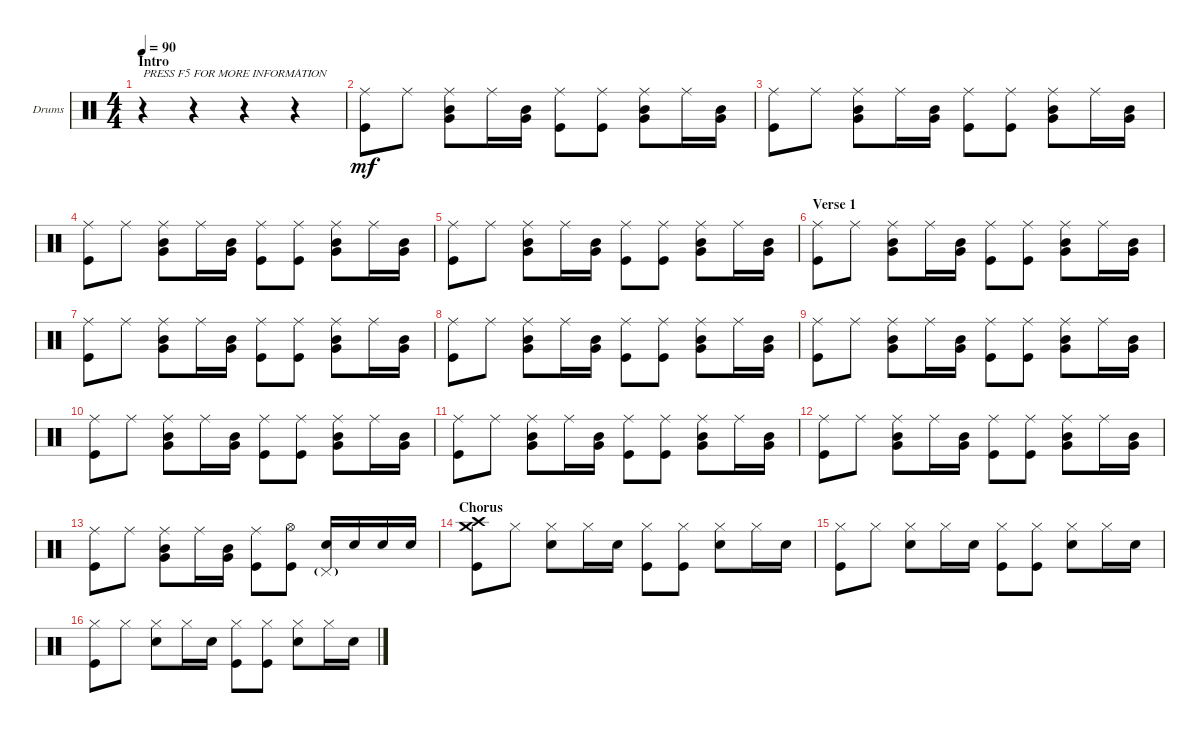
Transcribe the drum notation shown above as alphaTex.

\defaultSystemsLayout 4
\bracketExtendMode groupsimilarinstruments
\firstSystemTrackNameOrientation horizontal
\otherSystemsTrackNameOrientation horizontal
\track ("Drums" "Drums") {instrument percussion}
\staff {score}
\articulation defaults
\ts (4 4)
\section ("" "Intro")
\tempo 90
\clef neutral
\ks c
r.4{txt "PRESS F5 FOR MORE INFORMATION" dy mf} r.4 r.4 r.4 |
("Ride (middle)" "Kick (hit)").8 "Ride (middle)".8 ("Ride (middle)" "Very Low Tom (hit)" "Mid Tom (hit)").8 "Ride (middle)".16 ("Very Low Tom (hit)" "Mid Tom (hit)").16 ("Ride (middle)" "Kick (hit)").8 ("Ride (middle)" "Kick (hit)").8 ("Ride (middle)" "Very Low Tom (hit)" "Mid Tom (hit)").8 "Ride (middle)".16 ("Very Low Tom (hit)" "Mid Tom (hit)").16 |
("Ride (middle)" "Kick (hit)").8 "Ride (middle)".8 ("Ride (middle)" "Very Low Tom (hit)" "Mid Tom (hit)").8 "Ride (middle)".16 ("Very Low Tom (hit)" "Mid Tom (hit)").16 ("Ride (middle)" "Kick (hit)").8 ("Ride (middle)" "Kick (hit)").8 ("Ride (middle)" "Very Low Tom (hit)" "Mid Tom (hit)").8 "Ride (middle)".16 ("Very Low Tom (hit)" "Mid Tom (hit)").16 |
("Ride (middle)" "Kick (hit)").8 "Ride (middle)".8 ("Ride (middle)" "Very Low Tom (hit)" "Mid Tom (hit)").8 "Ride (middle)".16 ("Very Low Tom (hit)" "Mid Tom (hit)").16 ("Ride (middle)" "Kick (hit)").8 ("Ride (middle)" "Kick (hit)").8 ("Ride (middle)" "Very Low Tom (hit)" "Mid Tom (hit)").8 "Ride (middle)".16 ("Very Low Tom (hit)" "Mid Tom (hit)").16 |
("Ride (middle)" "Kick (hit)").8 "Ride (middle)".8 ("Ride (middle)" "Very Low Tom (hit)" "Mid Tom (hit)").8 "Ride (middle)".16 ("Very Low Tom (hit)" "Mid Tom (hit)").16 ("Ride (middle)" "Kick (hit)").8 ("Ride (middle)" "Kick (hit)").8 ("Ride (middle)" "Very Low Tom (hit)" "Mid Tom (hit)").8 "Ride (middle)".16 ("Very Low Tom (hit)" "Mid Tom (hit)").16 |
\section ("" "Verse 1")
("Ride (middle)" "Kick (hit)").8 "Ride (middle)".8 ("Ride (middle)" "Very Low Tom (hit)" "Mid Tom (hit)").8 "Ride (middle)".16 ("Very Low Tom (hit)" "Mid Tom (hit)").16 ("Ride (middle)" "Kick (hit)").8 ("Ride (middle)" "Kick (hit)").8 ("Ride (middle)" "Very Low Tom (hit)" "Mid Tom (hit)").8 "Ride (middle)".16 ("Very Low Tom (hit)" "Mid Tom (hit)").16 |
("Ride (middle)" "Kick (hit)").8 "Ride (middle)".8 ("Ride (middle)" "Very Low Tom (hit)" "Mid Tom (hit)").8 "Ride (middle)".16 ("Very Low Tom (hit)" "Mid Tom (hit)").16 ("Ride (middle)" "Kick (hit)").8 ("Ride (middle)" "Kick (hit)").8 ("Ride (middle)" "Very Low Tom (hit)" "Mid Tom (hit)").8 "Ride (middle)".16 ("Very Low Tom (hit)" "Mid Tom (hit)").16 |
("Ride (middle)" "Kick (hit)").8 "Ride (middle)".8 ("Ride (middle)" "Very Low Tom (hit)" "Mid Tom (hit)").8 "Ride (middle)".16 ("Very Low Tom (hit)" "Mid Tom (hit)").16 ("Ride (middle)" "Kick (hit)").8 ("Ride (middle)" "Kick (hit)").8 ("Ride (middle)" "Very Low Tom (hit)" "Mid Tom (hit)").8 "Ride (middle)".16 ("Very Low Tom (hit)" "Mid Tom (hit)").16 |
("Ride (middle)" "Kick (hit)").8 "Ride (middle)".8 ("Ride (middle)" "Very Low Tom (hit)" "Mid Tom (hit)").8 "Ride (middle)".16 ("Very Low Tom (hit)" "Mid Tom (hit)").16 ("Ride (middle)" "Kick (hit)").8 ("Ride (middle)" "Kick (hit)").8 ("Ride (middle)" "Very Low Tom (hit)" "Mid Tom (hit)").8 "Ride (middle)".16 ("Very Low Tom (hit)" "Mid Tom (hit)").16 |
("Ride (middle)" "Kick (hit)").8 "Ride (middle)".8 ("Ride (middle)" "Very Low Tom (hit)" "Mid Tom (hit)").8 "Ride (middle)".16 ("Very Low Tom (hit)" "Mid Tom (hit)").16 ("Ride (middle)" "Kick (hit)").8 ("Ride (middle)" "Kick (hit)").8 ("Ride (middle)" "Very Low Tom (hit)" "Mid Tom (hit)").8 "Ride (middle)".16 ("Very Low Tom (hit)" "Mid Tom (hit)").16 |
("Ride (middle)" "Kick (hit)").8 "Ride (middle)".8 ("Ride (middle)" "Very Low Tom (hit)" "Mid Tom (hit)").8 "Ride (middle)".16 ("Very Low Tom (hit)" "Mid Tom (hit)").16 ("Ride (middle)" "Kick (hit)").8 ("Ride (middle)" "Kick (hit)").8 ("Ride (middle)" "Very Low Tom (hit)" "Mid Tom (hit)").8 "Ride (middle)".16 ("Very Low Tom (hit)" "Mid Tom (hit)").16 |
("Ride (middle)" "Kick (hit)").8 "Ride (middle)".8 ("Ride (middle)" "Very Low Tom (hit)" "Mid Tom (hit)").8 "Ride (middle)".16 ("Very Low Tom (hit)" "Mid Tom (hit)").16 ("Ride (middle)" "Kick (hit)").8 ("Ride (middle)" "Kick (hit)").8 ("Ride (middle)" "Very Low Tom (hit)" "Mid Tom (hit)").8 "Ride (middle)".16 ("Very Low Tom (hit)" "Mid Tom (hit)").16 |
("Ride (middle)" "Kick (hit)").8 "Ride (middle)".8 ("Ride (middle)" "Very Low Tom (hit)" "Mid Tom (hit)").8 "Ride (middle)".16 ("Very Low Tom (hit)" "Mid Tom (hit)").16 ("Ride (middle)" "Kick (hit)").8 ("Hi-Hat (open)" "Kick (hit)").8 ("Pedal Hi-Hat (hit)"{g} "Snare (hit) 2").16 "Snare (hit) 2".16 "Snare (hit) 2".16 "Snare (hit) 2".16 |
\section ("" "Chorus")
("Crash medium (hit)" "Crash high (hit)" "Kick (hit)").8 "Hi-Hat (closed)".8 ("Hi-Hat (closed)" "Snare (hit) 2").8 "Hi-Hat (closed)".16 "Snare (hit) 2".16 ("Hi-Hat (closed)" "Kick (hit)").8 ("Hi-Hat (closed)" "Kick (hit)").8 ("Hi-Hat (closed)" "Snare (hit) 2").8 "Hi-Hat (closed)".16 "Snare (hit) 2".16 |
("Hi-Hat (closed)" "Kick (hit)").8 "Hi-Hat (closed)".8 ("Hi-Hat (closed)" "Snare (hit) 2").8 "Hi-Hat (closed)".16 "Snare (hit) 2".16 ("Hi-Hat (closed)" "Kick (hit)").8 ("Hi-Hat (closed)" "Kick (hit)").8 ("Hi-Hat (closed)" "Snare (hit) 2").8 "Hi-Hat (closed)".16 "Snare (hit) 2".16 |
("Hi-Hat (closed)" "Kick (hit)").8 "Hi-Hat (closed)".8 ("Hi-Hat (closed)" "Snare (hit) 2").8 "Hi-Hat (closed)".16 "Snare (hit) 2".16 ("Hi-Hat (closed)" "Kick (hit)").8 ("Hi-Hat (closed)" "Kick (hit)").8 ("Hi-Hat (closed)" "Snare (hit) 2").8 "Hi-Hat (closed)".16 "Snare (hit) 2".16
